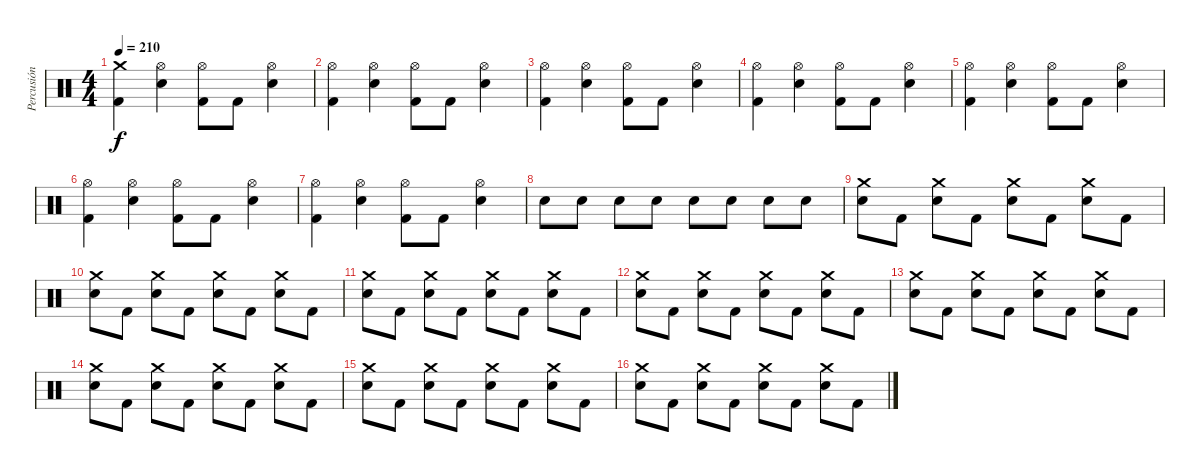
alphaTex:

\track ("Percusión" "Percusión") {instrument percussion}
\staff {score}
\articulation defaults
\ts (4 4)
\tempo 210
\clef neutral
\ks c
("Crash medium (hit)" "Kick (hit) 2").4{dy f} ("Snare (hit) 2" "Hi-Hat (open)").4 ("Hi-Hat (open)" "Kick (hit) 2").8 "Kick (hit) 2".8 ("Snare (hit) 2" "Hi-Hat (open)").4 |
("Hi-Hat (open)" "Kick (hit) 2").4 ("Snare (hit) 2" "Hi-Hat (open)").4 ("Hi-Hat (open)" "Kick (hit) 2").8 "Kick (hit) 2".8 ("Snare (hit) 2" "Hi-Hat (open)").4 |
("Hi-Hat (open)" "Kick (hit) 2").4 ("Snare (hit) 2" "Hi-Hat (open)").4 ("Hi-Hat (open)" "Kick (hit) 2").8 "Kick (hit) 2".8 ("Snare (hit) 2" "Hi-Hat (open)").4 |
("Hi-Hat (open)" "Kick (hit) 2").4 ("Snare (hit) 2" "Hi-Hat (open)").4 ("Hi-Hat (open)" "Kick (hit) 2").8 "Kick (hit) 2".8 ("Snare (hit) 2" "Hi-Hat (open)").4 |
("Hi-Hat (open)" "Kick (hit) 2").4 ("Snare (hit) 2" "Hi-Hat (open)").4 ("Hi-Hat (open)" "Kick (hit) 2").8 "Kick (hit) 2".8 ("Snare (hit) 2" "Hi-Hat (open)").4 |
("Hi-Hat (open)" "Kick (hit) 2").4 ("Snare (hit) 2" "Hi-Hat (open)").4 ("Hi-Hat (open)" "Kick (hit) 2").8 "Kick (hit) 2".8 ("Snare (hit) 2" "Hi-Hat (open)").4 |
("Hi-Hat (open)" "Kick (hit) 2").4 ("Snare (hit) 2" "Hi-Hat (open)").4 ("Hi-Hat (open)" "Kick (hit) 2").8 "Kick (hit) 2".8 ("Snare (hit) 2" "Hi-Hat (open)").4 |
"Snare (hit) 2".8 "Snare (hit) 2".8 "Snare (hit) 2".8 "Snare (hit) 2".8 "Snare (hit) 2".8 "Snare (hit) 2".8 "Snare (hit) 2".8 "Snare (hit) 2".8 |
("Snare (hit) 2" "Crash medium (hit)").8 "Kick (hit) 2".8 ("Snare (hit) 2" "Crash medium (hit)").8 "Kick (hit) 2".8 ("Snare (hit) 2" "Crash medium (hit)").8 "Kick (hit) 2".8 ("Snare (hit) 2" "Crash medium (hit)").8 "Kick (hit) 2".8 |
("Snare (hit) 2" "Crash medium (hit)").8 "Kick (hit) 2".8 ("Snare (hit) 2" "Crash medium (hit)").8 "Kick (hit) 2".8 ("Snare (hit) 2" "Crash medium (hit)").8 "Kick (hit) 2".8 ("Snare (hit) 2" "Crash medium (hit)").8 "Kick (hit) 2".8 |
("Snare (hit) 2" "Crash medium (hit)").8 "Kick (hit) 2".8 ("Snare (hit) 2" "Crash medium (hit)").8 "Kick (hit) 2".8 ("Snare (hit) 2" "Crash medium (hit)").8 "Kick (hit) 2".8 ("Snare (hit) 2" "Crash medium (hit)").8 "Kick (hit) 2".8 |
("Snare (hit) 2" "Crash medium (hit)").8 "Kick (hit) 2".8 ("Snare (hit) 2" "Crash medium (hit)").8 "Kick (hit) 2".8 ("Snare (hit) 2" "Crash medium (hit)").8 "Kick (hit) 2".8 ("Snare (hit) 2" "Crash medium (hit)").8 "Kick (hit) 2".8 |
("Snare (hit) 2" "Crash medium (hit)").8 "Kick (hit) 2".8 ("Snare (hit) 2" "Crash medium (hit)").8 "Kick (hit) 2".8 ("Snare (hit) 2" "Crash medium (hit)").8 "Kick (hit) 2".8 ("Snare (hit) 2" "Crash medium (hit)").8 "Kick (hit) 2".8 |
("Snare (hit) 2" "Crash medium (hit)").8 "Kick (hit) 2".8 ("Snare (hit) 2" "Crash medium (hit)").8 "Kick (hit) 2".8 ("Snare (hit) 2" "Crash medium (hit)").8 "Kick (hit) 2".8 ("Snare (hit) 2" "Crash medium (hit)").8 "Kick (hit) 2".8 |
("Snare (hit) 2" "Crash medium (hit)").8 "Kick (hit) 2".8 ("Snare (hit) 2" "Crash medium (hit)").8 "Kick (hit) 2".8 ("Snare (hit) 2" "Crash medium (hit)").8 "Kick (hit) 2".8 ("Snare (hit) 2" "Crash medium (hit)").8 "Kick (hit) 2".8 |
("Snare (hit) 2" "Crash medium (hit)").8 "Kick (hit) 2".8 ("Snare (hit) 2" "Crash medium (hit)").8 "Kick (hit) 2".8 ("Snare (hit) 2" "Crash medium (hit)").8 "Kick (hit) 2".8 ("Snare (hit) 2" "Crash medium (hit)").8 "Kick (hit) 2".8
